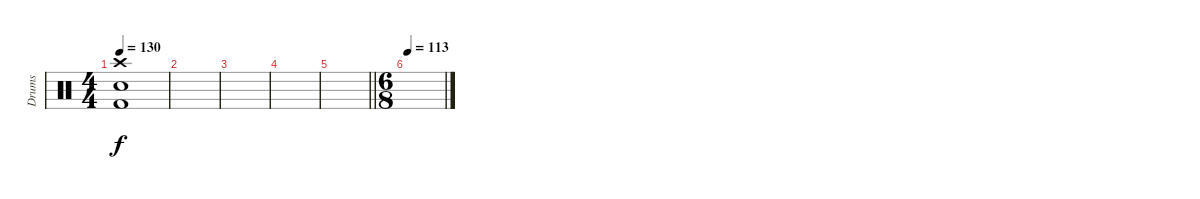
\track ("Drums" "Drums") {instrument percussion}
\staff {score}
\articulation defaults
\ts (4 4)
\tempo 130
\clef neutral
\ks c
("Crash high (hit)" "Electric Snare (hit)" "Kick (hit) 2").1{dy f} |
|
|
|
\barLineRight lightlight
|
\ts (6 8)
\tempo 113
